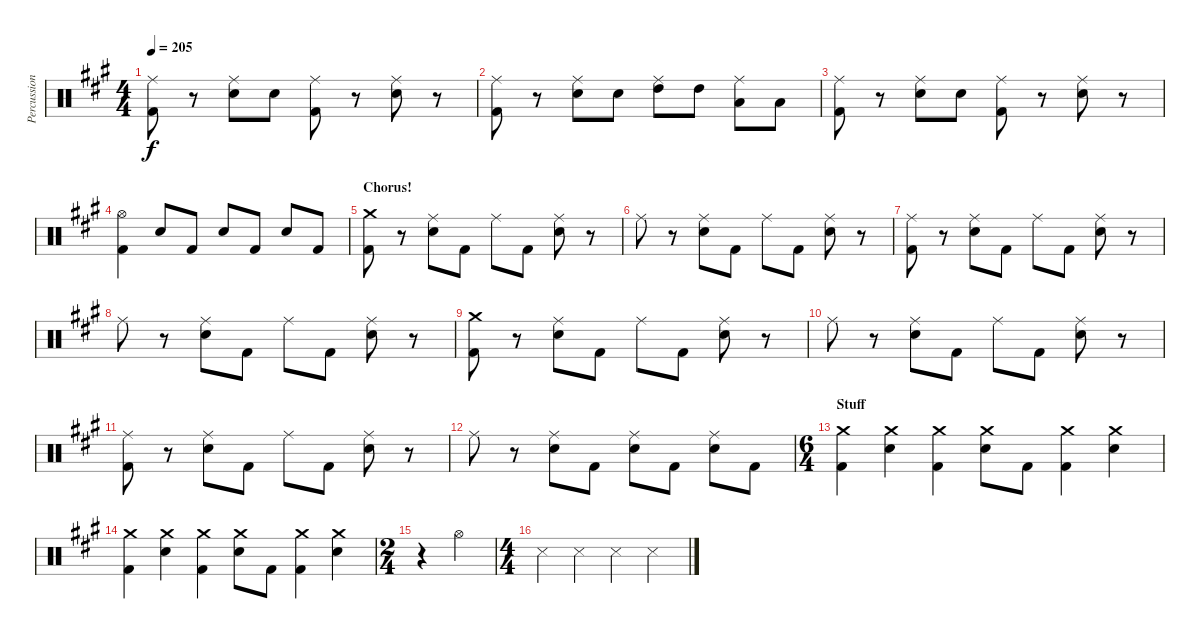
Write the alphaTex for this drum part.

\track ("Percussion" "Percussion") {instrument percussion}
\staff {score}
\articulation defaults
\ts (4 4)
\tempo 205
\clef neutral
\ks a
("Ride (middle)" "Kick (hit) 2").8{dy f} r.8 ("Ride (middle)" "Snare (hit) 2").8 "Snare (hit) 2".8 ("Ride (middle)" "Kick (hit) 2").8 r.8 ("Ride (middle)" "Snare (hit) 2").8 r.8 |
("Ride (middle)" "Kick (hit) 2").8 r.8 ("Ride (middle)" "Snare (hit) 2").8 "Snare (hit) 2".8 ("Ride (middle)" "High Tom (hit)").8 "High Tom (hit)".8 ("Ride (middle)" "Low Tom (hit)").8 "Low Tom (hit)".8 |
("Ride (middle)" "Kick (hit) 2").8 r.8 ("Ride (middle)" "Snare (hit) 2").8 "Snare (hit) 2".8 ("Ride (middle)" "Kick (hit) 2").8 r.8 ("Ride (middle)" "Snare (hit) 2").8 r.8 |
("Hi-Hat (open)" "Kick (hit) 2").4 "Snare (hit) 2".8 "Kick (hit) 2".8 "Snare (hit) 2".8 "Kick (hit) 2".8 "Snare (hit) 2".8 "Kick (hit) 2".8 |
\section ("" "Chorus!")
("Crash medium (hit)" "Kick (hit) 2").8 r.8 ("Ride (middle)" "Snare (hit) 2").8 "Kick (hit) 2".8 "Ride (middle)".8 "Kick (hit) 2".8 ("Ride (middle)" "Snare (hit) 2").8 r.8 |
"Ride (middle)".8 r.8 ("Ride (middle)" "Snare (hit) 2").8 "Kick (hit) 2".8 "Ride (middle)".8 "Kick (hit) 2".8 ("Ride (middle)" "Snare (hit) 2").8 r.8 |
("Ride (middle)" "Kick (hit) 2").8 r.8 ("Ride (middle)" "Snare (hit) 2").8 "Kick (hit) 2".8 "Ride (middle)".8 "Kick (hit) 2".8 ("Ride (middle)" "Snare (hit) 2").8 r.8 |
"Ride (middle)".8 r.8 ("Ride (middle)" "Snare (hit) 2").8 "Kick (hit) 2".8 "Ride (middle)".8 "Kick (hit) 2".8 ("Ride (middle)" "Snare (hit) 2").8 r.8 |
("Crash medium (hit)" "Kick (hit) 2").8 r.8 ("Ride (middle)" "Snare (hit) 2").8 "Kick (hit) 2".8 "Ride (middle)".8 "Kick (hit) 2".8 ("Ride (middle)" "Snare (hit) 2").8 r.8 |
"Ride (middle)".8 r.8 ("Ride (middle)" "Snare (hit) 2").8 "Kick (hit) 2".8 "Ride (middle)".8 "Kick (hit) 2".8 ("Ride (middle)" "Snare (hit) 2").8 r.8 |
("Ride (middle)" "Kick (hit) 2").8 r.8 ("Ride (middle)" "Snare (hit) 2").8 "Kick (hit) 2".8 "Ride (middle)".8 "Kick (hit) 2".8 ("Ride (middle)" "Snare (hit) 2").8 r.8 |
"Ride (middle)".8 r.8 ("Ride (middle)" "Snare (hit) 2").8 "Kick (hit) 2".8 ("Ride (middle)" "Snare (hit) 2").8 "Kick (hit) 2".8 ("Ride (middle)" "Snare (hit) 2").8 "Kick (hit) 2".8 |
\ts (6 4)
\section ("" "Stuff")
("Crash medium (hit)" "Kick (hit) 2").4 ("Crash medium (hit)" "Snare (hit) 2").4 ("Crash medium (hit)" "Kick (hit) 2").4 ("Crash medium (hit)" "Snare (hit) 2").8 "Kick (hit) 2".8 ("Crash medium (hit)" "Kick (hit) 2").4 ("Crash medium (hit)" "Snare (hit) 2").4 |
("Crash medium (hit)" "Kick (hit) 2").4 ("Crash medium (hit)" "Snare (hit) 2").4 ("Crash medium (hit)" "Kick (hit) 2").4 ("Crash medium (hit)" "Snare (hit) 2").8 "Kick (hit) 2".8 ("Crash medium (hit)" "Kick (hit) 2").4 ("Crash medium (hit)" "Snare (hit) 2").4 |
\ts (2 4)
r.4 "Hi-Hat (open)".4 |
\ts (4 4)
"Snare (side stick) 3".4 "Snare (side stick) 3".4 "Snare (side stick) 3".4 "Snare (side stick) 3".4
